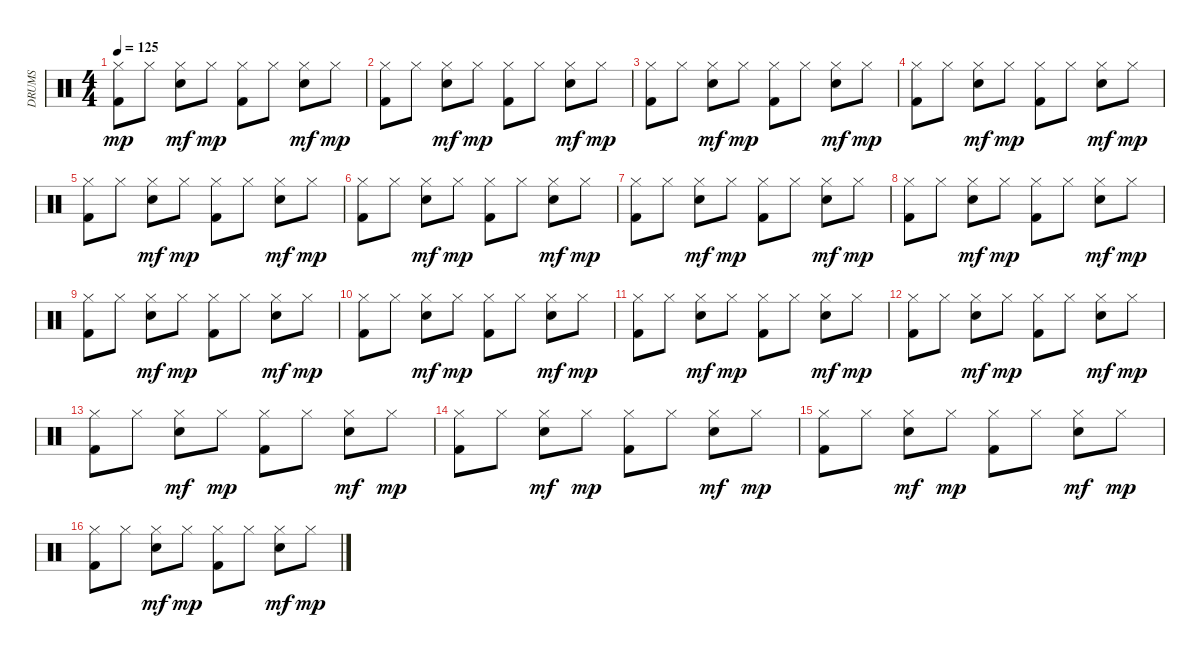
\track ("DRUMS" "DRUMS") {instrument percussion}
\staff {score}
\articulation defaults
\ts (4 4)
\tempo 125
\clef neutral
\ks c
("Hi-Hat (closed)" "Kick (hit) 2").8{dy mp} "Hi-Hat (closed)".8 ("Hi-Hat (closed)" "Snare (hit) 2").8{dy mf} "Hi-Hat (closed)".8{dy mp} ("Hi-Hat (closed)" "Kick (hit) 2").8 "Hi-Hat (closed)".8 ("Hi-Hat (closed)" "Snare (hit) 2").8{dy mf} "Hi-Hat (closed)".8{dy mp} |
("Hi-Hat (closed)" "Kick (hit) 2").8 "Hi-Hat (closed)".8 ("Hi-Hat (closed)" "Snare (hit) 2").8{dy mf} "Hi-Hat (closed)".8{dy mp} ("Hi-Hat (closed)" "Kick (hit) 2").8 "Hi-Hat (closed)".8 ("Hi-Hat (closed)" "Snare (hit) 2").8{dy mf} "Hi-Hat (closed)".8{dy mp} |
("Hi-Hat (closed)" "Kick (hit) 2").8 "Hi-Hat (closed)".8 ("Hi-Hat (closed)" "Snare (hit) 2").8{dy mf} "Hi-Hat (closed)".8{dy mp} ("Hi-Hat (closed)" "Kick (hit) 2").8 "Hi-Hat (closed)".8 ("Hi-Hat (closed)" "Snare (hit) 2").8{dy mf} "Hi-Hat (closed)".8{dy mp} |
("Hi-Hat (closed)" "Kick (hit) 2").8 "Hi-Hat (closed)".8 ("Hi-Hat (closed)" "Snare (hit) 2").8{dy mf} "Hi-Hat (closed)".8{dy mp} ("Hi-Hat (closed)" "Kick (hit) 2").8 "Hi-Hat (closed)".8 ("Hi-Hat (closed)" "Snare (hit) 2").8{dy mf} "Hi-Hat (closed)".8{dy mp} |
("Hi-Hat (closed)" "Kick (hit) 2").8 "Hi-Hat (closed)".8 ("Hi-Hat (closed)" "Snare (hit) 2").8{dy mf} "Hi-Hat (closed)".8{dy mp} ("Hi-Hat (closed)" "Kick (hit) 2").8 "Hi-Hat (closed)".8 ("Hi-Hat (closed)" "Snare (hit) 2").8{dy mf} "Hi-Hat (closed)".8{dy mp} |
("Hi-Hat (closed)" "Kick (hit) 2").8 "Hi-Hat (closed)".8 ("Hi-Hat (closed)" "Snare (hit) 2").8{dy mf} "Hi-Hat (closed)".8{dy mp} ("Hi-Hat (closed)" "Kick (hit) 2").8 "Hi-Hat (closed)".8 ("Hi-Hat (closed)" "Snare (hit) 2").8{dy mf} "Hi-Hat (closed)".8{dy mp} |
("Hi-Hat (closed)" "Kick (hit) 2").8 "Hi-Hat (closed)".8 ("Hi-Hat (closed)" "Snare (hit) 2").8{dy mf} "Hi-Hat (closed)".8{dy mp} ("Hi-Hat (closed)" "Kick (hit) 2").8 "Hi-Hat (closed)".8 ("Hi-Hat (closed)" "Snare (hit) 2").8{dy mf} "Hi-Hat (closed)".8{dy mp} |
("Hi-Hat (closed)" "Kick (hit) 2").8 "Hi-Hat (closed)".8 ("Hi-Hat (closed)" "Snare (hit) 2").8{dy mf} "Hi-Hat (closed)".8{dy mp} ("Hi-Hat (closed)" "Kick (hit) 2").8 "Hi-Hat (closed)".8 ("Hi-Hat (closed)" "Snare (hit) 2").8{dy mf} "Hi-Hat (closed)".8{dy mp} |
("Hi-Hat (closed)" "Kick (hit) 2").8 "Hi-Hat (closed)".8 ("Hi-Hat (closed)" "Snare (hit) 2").8{dy mf} "Hi-Hat (closed)".8{dy mp} ("Hi-Hat (closed)" "Kick (hit) 2").8 "Hi-Hat (closed)".8 ("Hi-Hat (closed)" "Snare (hit) 2").8{dy mf} "Hi-Hat (closed)".8{dy mp} |
("Hi-Hat (closed)" "Kick (hit) 2").8 "Hi-Hat (closed)".8 ("Hi-Hat (closed)" "Snare (hit) 2").8{dy mf} "Hi-Hat (closed)".8{dy mp} ("Hi-Hat (closed)" "Kick (hit) 2").8 "Hi-Hat (closed)".8 ("Hi-Hat (closed)" "Snare (hit) 2").8{dy mf} "Hi-Hat (closed)".8{dy mp} |
("Hi-Hat (closed)" "Kick (hit) 2").8 "Hi-Hat (closed)".8 ("Hi-Hat (closed)" "Snare (hit) 2").8{dy mf} "Hi-Hat (closed)".8{dy mp} ("Hi-Hat (closed)" "Kick (hit) 2").8 "Hi-Hat (closed)".8 ("Hi-Hat (closed)" "Snare (hit) 2").8{dy mf} "Hi-Hat (closed)".8{dy mp} |
("Hi-Hat (closed)" "Kick (hit) 2").8 "Hi-Hat (closed)".8 ("Hi-Hat (closed)" "Snare (hit) 2").8{dy mf} "Hi-Hat (closed)".8{dy mp} ("Hi-Hat (closed)" "Kick (hit) 2").8 "Hi-Hat (closed)".8 ("Hi-Hat (closed)" "Snare (hit) 2").8{dy mf} "Hi-Hat (closed)".8{dy mp} |
("Hi-Hat (closed)" "Kick (hit) 2").8 "Hi-Hat (closed)".8 ("Hi-Hat (closed)" "Snare (hit) 2").8{dy mf} "Hi-Hat (closed)".8{dy mp} ("Hi-Hat (closed)" "Kick (hit) 2").8 "Hi-Hat (closed)".8 ("Hi-Hat (closed)" "Snare (hit) 2").8{dy mf} "Hi-Hat (closed)".8{dy mp} |
("Hi-Hat (closed)" "Kick (hit) 2").8 "Hi-Hat (closed)".8 ("Hi-Hat (closed)" "Snare (hit) 2").8{dy mf} "Hi-Hat (closed)".8{dy mp} ("Hi-Hat (closed)" "Kick (hit) 2").8 "Hi-Hat (closed)".8 ("Hi-Hat (closed)" "Snare (hit) 2").8{dy mf} "Hi-Hat (closed)".8{dy mp} |
("Hi-Hat (closed)" "Kick (hit) 2").8 "Hi-Hat (closed)".8 ("Hi-Hat (closed)" "Snare (hit) 2").8{dy mf} "Hi-Hat (closed)".8{dy mp} ("Hi-Hat (closed)" "Kick (hit) 2").8 "Hi-Hat (closed)".8 ("Hi-Hat (closed)" "Snare (hit) 2").8{dy mf} "Hi-Hat (closed)".8{dy mp} |
("Hi-Hat (closed)" "Kick (hit) 2").8 "Hi-Hat (closed)".8 ("Hi-Hat (closed)" "Snare (hit) 2").8{dy mf} "Hi-Hat (closed)".8{dy mp} ("Hi-Hat (closed)" "Kick (hit) 2").8 "Hi-Hat (closed)".8 ("Hi-Hat (closed)" "Snare (hit) 2").8{dy mf} "Hi-Hat (closed)".8{dy mp}
